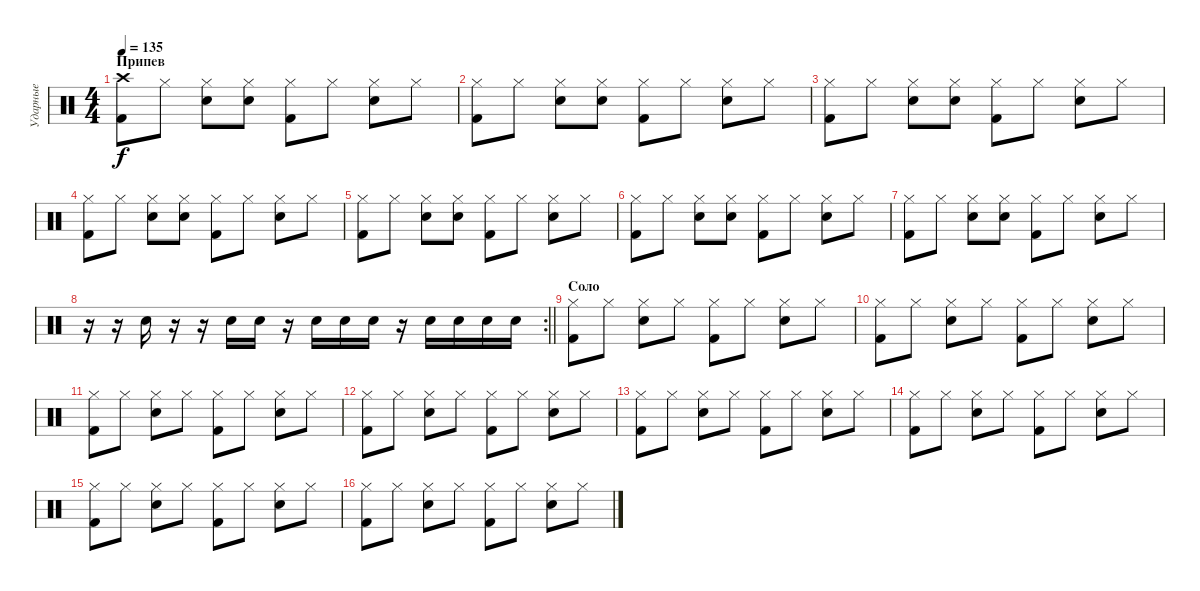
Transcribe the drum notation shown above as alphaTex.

\track ("Ударные" "Ударные") {instrument percussion}
\staff {score}
\articulation defaults
\ts (4 4)
\section ("" "Припев")
\tempo 135
\clef neutral
\ks c
("Crash high (hit)" "Kick (hit) 2").8{dy f} "Hi-Hat (closed)".8 ("Hi-Hat (closed)" "Snare (hit) 2").8 ("Hi-Hat (closed)" "Snare (hit) 2").8 ("Hi-Hat (closed)" "Kick (hit) 2").8 "Hi-Hat (closed)".8 ("Hi-Hat (closed)" "Snare (hit) 2").8 "Hi-Hat (closed)".8 |
("Hi-Hat (closed)" "Kick (hit) 2").8 "Hi-Hat (closed)".8 ("Hi-Hat (closed)" "Snare (hit) 2").8 ("Hi-Hat (closed)" "Snare (hit) 2").8 ("Hi-Hat (closed)" "Kick (hit) 2").8 "Hi-Hat (closed)".8 ("Hi-Hat (closed)" "Snare (hit) 2").8 "Hi-Hat (closed)".8 |
("Hi-Hat (closed)" "Kick (hit) 2").8 "Hi-Hat (closed)".8 ("Hi-Hat (closed)" "Snare (hit) 2").8 ("Hi-Hat (closed)" "Snare (hit) 2").8 ("Hi-Hat (closed)" "Kick (hit) 2").8 "Hi-Hat (closed)".8 ("Hi-Hat (closed)" "Snare (hit) 2").8 "Hi-Hat (closed)".8 |
("Hi-Hat (closed)" "Kick (hit) 2").8 "Hi-Hat (closed)".8 ("Hi-Hat (closed)" "Snare (hit) 2").8 ("Hi-Hat (closed)" "Snare (hit) 2").8 ("Hi-Hat (closed)" "Kick (hit) 2").8 "Hi-Hat (closed)".8 ("Hi-Hat (closed)" "Snare (hit) 2").8 "Hi-Hat (closed)".8 |
("Hi-Hat (closed)" "Kick (hit) 2").8 "Hi-Hat (closed)".8 ("Hi-Hat (closed)" "Snare (hit) 2").8 ("Hi-Hat (closed)" "Snare (hit) 2").8 ("Hi-Hat (closed)" "Kick (hit) 2").8 "Hi-Hat (closed)".8 ("Hi-Hat (closed)" "Snare (hit) 2").8 "Hi-Hat (closed)".8 |
("Hi-Hat (closed)" "Kick (hit) 2").8 "Hi-Hat (closed)".8 ("Hi-Hat (closed)" "Snare (hit) 2").8 ("Hi-Hat (closed)" "Snare (hit) 2").8 ("Hi-Hat (closed)" "Kick (hit) 2").8 "Hi-Hat (closed)".8 ("Hi-Hat (closed)" "Snare (hit) 2").8 "Hi-Hat (closed)".8 |
("Hi-Hat (closed)" "Kick (hit) 2").8 "Hi-Hat (closed)".8 ("Hi-Hat (closed)" "Snare (hit) 2").8 ("Hi-Hat (closed)" "Snare (hit) 2").8 ("Hi-Hat (closed)" "Kick (hit) 2").8 "Hi-Hat (closed)".8 ("Hi-Hat (closed)" "Snare (hit) 2").8 "Hi-Hat (closed)".8 |
\rc 2
\barLineRight lightlight
r.16 r.16 "Snare (hit) 2".16 r.16 r.16 "Snare (hit) 2".16 "Snare (hit) 2".16 r.16 "Snare (hit) 2".16 "Snare (hit) 2".16 "Snare (hit) 2".16 r.16 "Snare (hit) 2".16 "Snare (hit) 2".16 "Snare (hit) 2".16 "Snare (hit) 2".16 |
\section ("" "Соло")
("Hi-Hat (closed)" "Kick (hit) 2").8 "Hi-Hat (closed)".8 ("Hi-Hat (closed)" "Snare (hit) 2").8 "Hi-Hat (closed)".8 ("Hi-Hat (closed)" "Kick (hit) 2").8 "Hi-Hat (closed)".8 ("Hi-Hat (closed)" "Snare (hit) 2").8 "Hi-Hat (closed)".8 |
("Hi-Hat (closed)" "Kick (hit) 2").8 "Hi-Hat (closed)".8 ("Hi-Hat (closed)" "Snare (hit) 2").8 "Hi-Hat (closed)".8 ("Hi-Hat (closed)" "Kick (hit) 2").8 "Hi-Hat (closed)".8 ("Hi-Hat (closed)" "Snare (hit) 2").8 "Hi-Hat (closed)".8 |
("Hi-Hat (closed)" "Kick (hit) 2").8 "Hi-Hat (closed)".8 ("Hi-Hat (closed)" "Snare (hit) 2").8 "Hi-Hat (closed)".8 ("Hi-Hat (closed)" "Kick (hit) 2").8 "Hi-Hat (closed)".8 ("Hi-Hat (closed)" "Snare (hit) 2").8 "Hi-Hat (closed)".8 |
("Hi-Hat (closed)" "Kick (hit) 2").8 "Hi-Hat (closed)".8 ("Hi-Hat (closed)" "Snare (hit) 2").8 "Hi-Hat (closed)".8 ("Hi-Hat (closed)" "Kick (hit) 2").8 "Hi-Hat (closed)".8 ("Hi-Hat (closed)" "Snare (hit) 2").8 "Hi-Hat (closed)".8 |
("Hi-Hat (closed)" "Kick (hit) 2").8 "Hi-Hat (closed)".8 ("Hi-Hat (closed)" "Snare (hit) 2").8 "Hi-Hat (closed)".8 ("Hi-Hat (closed)" "Kick (hit) 2").8 "Hi-Hat (closed)".8 ("Hi-Hat (closed)" "Snare (hit) 2").8 "Hi-Hat (closed)".8 |
("Hi-Hat (closed)" "Kick (hit) 2").8 "Hi-Hat (closed)".8 ("Hi-Hat (closed)" "Snare (hit) 2").8 "Hi-Hat (closed)".8 ("Hi-Hat (closed)" "Kick (hit) 2").8 "Hi-Hat (closed)".8 ("Hi-Hat (closed)" "Snare (hit) 2").8 "Hi-Hat (closed)".8 |
("Hi-Hat (closed)" "Kick (hit) 2").8 "Hi-Hat (closed)".8 ("Hi-Hat (closed)" "Snare (hit) 2").8 "Hi-Hat (closed)".8 ("Hi-Hat (closed)" "Kick (hit) 2").8 "Hi-Hat (closed)".8 ("Hi-Hat (closed)" "Snare (hit) 2").8 "Hi-Hat (closed)".8 |
("Hi-Hat (closed)" "Kick (hit) 2").8 "Hi-Hat (closed)".8 ("Hi-Hat (closed)" "Snare (hit) 2").8 "Hi-Hat (closed)".8 ("Hi-Hat (closed)" "Kick (hit) 2").8 "Hi-Hat (closed)".8 ("Hi-Hat (closed)" "Snare (hit) 2").8 "Hi-Hat (closed)".8
